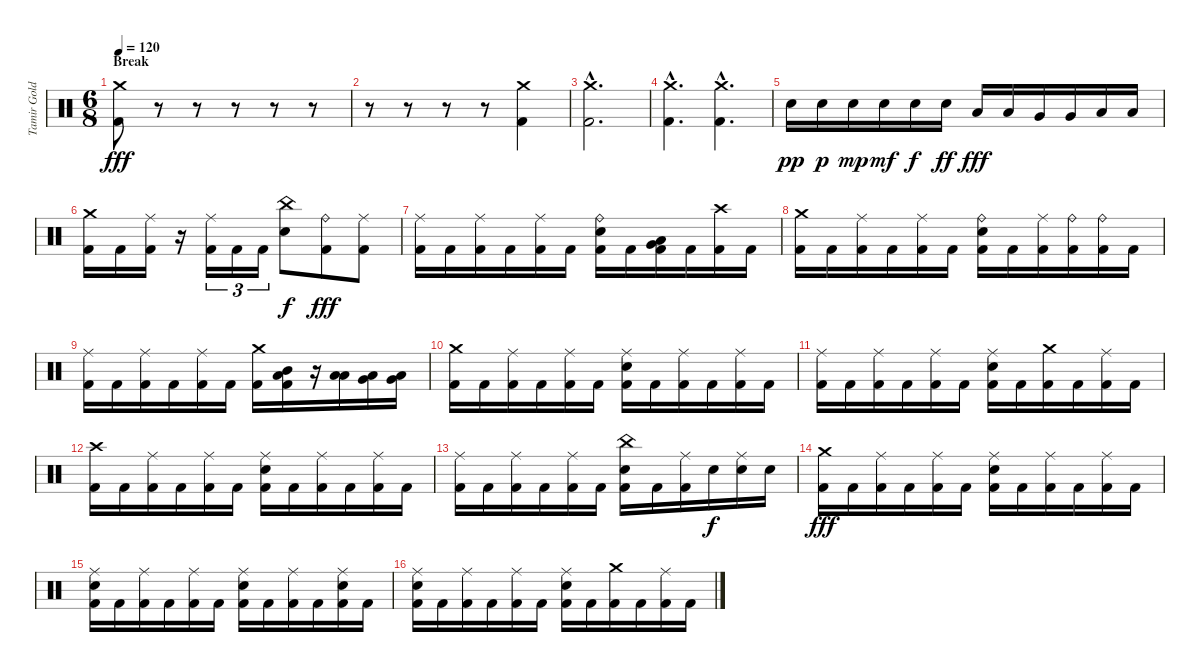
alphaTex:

\track ("Tamir Goldberg" "Tamir Gold") {instrument percussion}
\staff {score}
\articulation defaults
\ts (6 8)
\section ("" "Break")
\tempo 120
\clef neutral
\ks c
("Crash medium (hit)" "Kick (hit) 2").8{dy fff} r.8 r.8 r.8 r.8 r.8 |
r.8 r.8 r.8 r.8 ("Crash medium (hit)" "Kick (hit) 2").4 |
("Crash medium (hit)"{hac} "Kick (hit) 2"{hac}).2{d} |
("Crash medium (hit)"{hac} "Kick (hit) 2"{hac}).4{d} ("Crash medium (hit)"{hac} "Kick (hit) 2"{hac}).4{d} |
"Electric Snare (hit)".16{dy pp} "Electric Snare (hit)".16{dy p} "Electric Snare (hit)".16{dy mp} "Electric Snare (hit)".16{dy mf} "Electric Snare (hit)".16{dy f} "Electric Snare (hit)".16{dy ff} "Low Tom (hit)".16{dy fff} "Low Tom (hit)".16 "Very Low Tom (hit)".16 "Very Low Tom (hit)".16 "Low Floor Tom (hit)".16 "Low Floor Tom (hit)".16 |
("Crash medium (hit)" "Kick (hit) 2").16 "Kick (hit) 2".16 ("Ride (middle)" "Kick (hit) 2").16 r.16 ("Ride (middle)" "Kick (hit) 2").16{tu (3 2)} "Kick (hit) 2".16{tu (3 2)} "Kick (hit) 2".16{tu (3 2)} ("China (hit)" "Electric Snare (hit)").8{dy f} ("Ride (bell)" "Kick (hit) 2").8{dy fff} ("Ride (middle)" "Kick (hit) 2").8 |
("Ride (middle)" "Kick (hit) 2").16 "Kick (hit) 2".16 ("Ride (middle)" "Kick (hit) 2").16 "Kick (hit) 2".16 ("Ride (middle)" "Kick (hit) 2").16 "Kick (hit) 2".16 ("Ride (bell)" "Electric Snare (hit)" "Kick (hit) 2").16 "Kick (hit) 2".16 ("Very Low Tom (hit)" "Low Tom (hit)" "Kick (hit) 2").16 "Kick (hit) 2".16 ("Crash high (hit)" "Kick (hit) 2").16 "Kick (hit) 2".16 |
("Crash medium (hit)" "Kick (hit) 2").16 "Kick (hit) 2".16 ("Ride (middle)" "Kick (hit) 2").16 "Kick (hit) 2".16 ("Ride (middle)" "Kick (hit) 2").16 "Kick (hit) 2".16 ("Ride (bell)" "Electric Snare (hit)" "Kick (hit) 2").16 "Kick (hit) 2".16 ("Ride (middle)" "Kick (hit) 2").16 ("Ride (bell)" "Kick (hit) 2").16 ("Ride (bell)" "Kick (hit) 2").16 "Kick (hit) 2".16 |
("Ride (middle)" "Kick (hit) 2").16 "Kick (hit) 2".16 ("Ride (middle)" "Kick (hit) 2").16 "Kick (hit) 2".16 ("Ride (middle)" "Kick (hit) 2").16 "Kick (hit) 2".16 ("Crash medium (hit)" "Kick (hit) 2").16 ("Mid Tom (hit)" "Low Tom (hit)" "Kick (hit) 2").16 r.16 ("Low Tom (hit)" "Low Floor Tom (hit)").16 ("Very Low Tom (hit)" "Low Floor Tom (hit)").16 ("Very Low Tom (hit)" "Low Floor Tom (hit)").16 |
("Crash medium (hit)" "Kick (hit) 2").16 "Kick (hit) 2".16 ("Ride (middle)" "Kick (hit) 2").16 "Kick (hit) 2".16 ("Ride (middle)" "Kick (hit) 2").16 "Kick (hit) 2".16 ("Ride (middle)" "Electric Snare (hit)" "Kick (hit) 2").16 "Kick (hit) 2".16 ("Ride (middle)" "Kick (hit) 2").16 "Kick (hit) 2".16 ("Ride (middle)" "Kick (hit) 2").16 "Kick (hit) 2".16 |
("Ride (middle)" "Kick (hit) 2").16 "Kick (hit) 2".16 ("Ride (middle)" "Kick (hit) 2").16 "Kick (hit) 2".16 ("Ride (middle)" "Kick (hit) 2").16 "Kick (hit) 2".16 ("Ride (middle)" "Electric Snare (hit)" "Kick (hit) 2").16 "Kick (hit) 2".16 ("Crash medium (hit)" "Kick (hit) 2").16 "Kick (hit) 2".16 ("Ride (middle)" "Kick (hit) 2").16 "Kick (hit) 2".16 |
("Crash high (hit)" "Kick (hit) 2").16 "Kick (hit) 2".16 ("Ride (middle)" "Kick (hit) 2").16 "Kick (hit) 2".16 ("Ride (middle)" "Kick (hit) 2").16 "Kick (hit) 2".16 ("Ride (middle)" "Electric Snare (hit)" "Kick (hit) 2").16 "Kick (hit) 2".16 ("Ride (middle)" "Kick (hit) 2").16 "Kick (hit) 2".16 ("Ride (middle)" "Kick (hit) 2").16 "Kick (hit) 2".16 |
("Ride (middle)" "Kick (hit) 2").16 "Kick (hit) 2".16 ("Ride (middle)" "Kick (hit) 2").16 "Kick (hit) 2".16 ("Ride (middle)" "Kick (hit) 2").16 "Kick (hit) 2".16 ("China (hit)" "Electric Snare (hit)" "Kick (hit) 2").16 "Kick (hit) 2".16 ("Ride (middle)" "Kick (hit) 2").16 "Electric Snare (hit)".16{dy f} ("Ride (middle)" "Electric Snare (hit)").16 "Electric Snare (hit)".16 |
("Crash medium (hit)" "Kick (hit) 2").16{dy fff} "Kick (hit) 2".16 ("Ride (middle)" "Kick (hit) 2").16 "Kick (hit) 2".16 ("Ride (middle)" "Kick (hit) 2").16 "Kick (hit) 2".16 ("Ride (middle)" "Electric Snare (hit)" "Kick (hit) 2").16 "Kick (hit) 2".16 ("Ride (middle)" "Kick (hit) 2").16 "Kick (hit) 2".16 ("Ride (middle)" "Kick (hit) 2").16 "Kick (hit) 2".16 |
("Ride (middle)" "Electric Snare (hit)" "Kick (hit) 2").16 "Kick (hit) 2".16 ("Ride (middle)" "Kick (hit) 2").16 "Kick (hit) 2".16 ("Ride (middle)" "Kick (hit) 2").16 "Kick (hit) 2".16 ("Ride (middle)" "Electric Snare (hit)" "Kick (hit) 2").16 "Kick (hit) 2".16 ("Ride (middle)" "Kick (hit) 2").16 "Kick (hit) 2".16 ("Ride (middle)" "Electric Snare (hit)" "Kick (hit) 2").16 "Kick (hit) 2".16 |
("Ride (middle)" "Electric Snare (hit)" "Kick (hit) 2").16 "Kick (hit) 2".16 ("Ride (middle)" "Kick (hit) 2").16 "Kick (hit) 2".16 ("Ride (middle)" "Kick (hit) 2").16 "Kick (hit) 2".16 ("Ride (middle)" "Electric Snare (hit)" "Kick (hit) 2").16 "Kick (hit) 2".16 ("Crash medium (hit)" "Kick (hit) 2").16 "Kick (hit) 2".16 ("Ride (middle)" "Kick (hit) 2").16 "Kick (hit) 2".16
